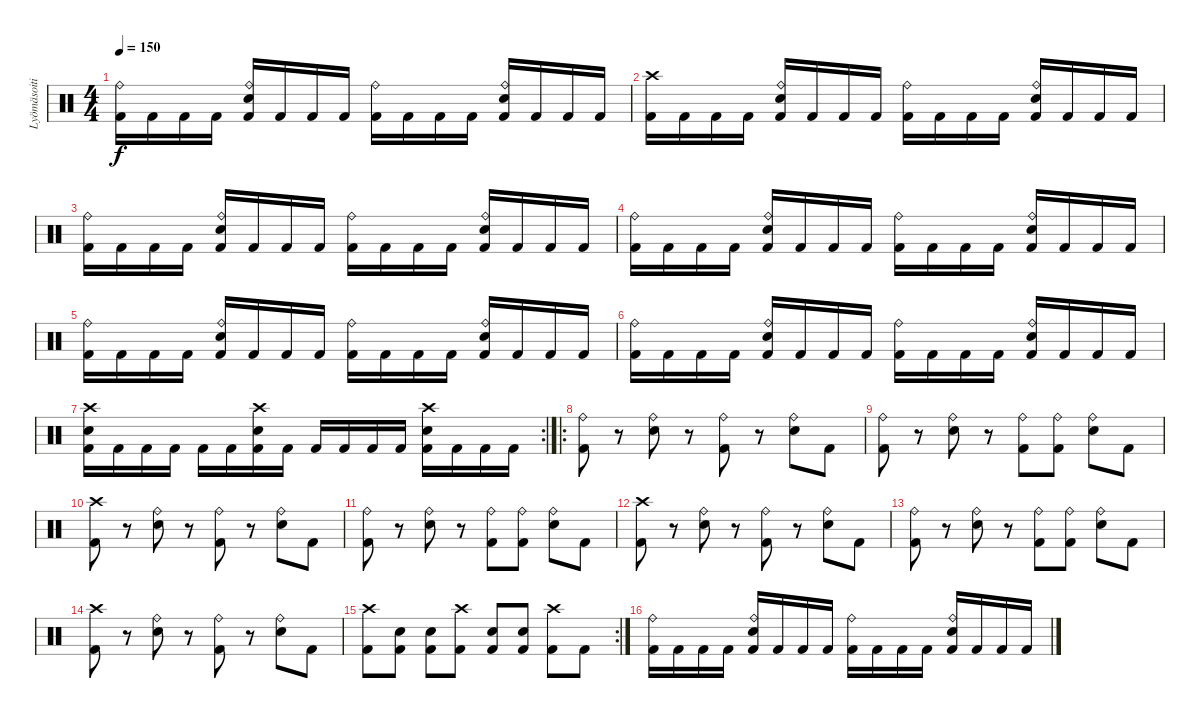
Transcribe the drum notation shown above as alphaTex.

\track ("Lyömäsoitin" "Lyömäsoiti") {instrument percussion}
\staff {score}
\articulation defaults
\ts (4 4)
\tempo 150
\clef neutral
\ks c
("Kick (hit) 2" "Ride (bell)").16{dy f} "Kick (hit) 2".16 "Kick (hit) 2".16 "Kick (hit) 2".16 ("Kick (hit) 2" "Ride (bell)" "Electric Snare (hit)").16 "Kick (hit) 2".16 "Kick (hit) 2".16 "Kick (hit) 2".16 ("Kick (hit) 2" "Ride (bell)").16 "Kick (hit) 2".16 "Kick (hit) 2".16 "Kick (hit) 2".16 ("Kick (hit) 2" "Ride (bell)" "Electric Snare (hit)").16 "Kick (hit) 2".16 "Kick (hit) 2".16 "Kick (hit) 2".16 |
("Kick (hit) 2" "Crash high (hit)").16 "Kick (hit) 2".16 "Kick (hit) 2".16 "Kick (hit) 2".16 ("Kick (hit) 2" "Electric Snare (hit)" "Ride (bell)").16 "Kick (hit) 2".16 "Kick (hit) 2".16 "Kick (hit) 2".16 ("Kick (hit) 2" "Ride (bell)").16 "Kick (hit) 2".16 "Kick (hit) 2".16 "Kick (hit) 2".16 ("Kick (hit) 2" "Ride (bell)" "Electric Snare (hit)").16 "Kick (hit) 2".16 "Kick (hit) 2".16 "Kick (hit) 2".16 |
("Kick (hit) 2" "Ride (bell)").16 "Kick (hit) 2".16 "Kick (hit) 2".16 "Kick (hit) 2".16 ("Kick (hit) 2" "Ride (bell)" "Electric Snare (hit)").16 "Kick (hit) 2".16 "Kick (hit) 2".16 "Kick (hit) 2".16 ("Kick (hit) 2" "Ride (bell)").16 "Kick (hit) 2".16 "Kick (hit) 2".16 "Kick (hit) 2".16 ("Kick (hit) 2" "Ride (bell)" "Electric Snare (hit)").16 "Kick (hit) 2".16 "Kick (hit) 2".16 "Kick (hit) 2".16 |
("Kick (hit) 2" "Ride (bell)").16 "Kick (hit) 2".16 "Kick (hit) 2".16 "Kick (hit) 2".16 ("Kick (hit) 2" "Electric Snare (hit)" "Ride (bell)").16 "Kick (hit) 2".16 "Kick (hit) 2".16 "Kick (hit) 2".16 ("Kick (hit) 2" "Ride (bell)").16 "Kick (hit) 2".16 "Kick (hit) 2".16 "Kick (hit) 2".16 ("Kick (hit) 2" "Ride (bell)" "Electric Snare (hit)").16 "Kick (hit) 2".16 "Kick (hit) 2".16 "Kick (hit) 2".16 |
("Kick (hit) 2" "Ride (bell)").16 "Kick (hit) 2".16 "Kick (hit) 2".16 "Kick (hit) 2".16 ("Kick (hit) 2" "Ride (bell)" "Electric Snare (hit)").16 "Kick (hit) 2".16 "Kick (hit) 2".16 "Kick (hit) 2".16 ("Kick (hit) 2" "Ride (bell)").16 "Kick (hit) 2".16 "Kick (hit) 2".16 "Kick (hit) 2".16 ("Kick (hit) 2" "Ride (bell)" "Electric Snare (hit)").16 "Kick (hit) 2".16 "Kick (hit) 2".16 "Kick (hit) 2".16 |
("Kick (hit) 2" "Ride (bell)").16 "Kick (hit) 2".16 "Kick (hit) 2".16 "Kick (hit) 2".16 ("Kick (hit) 2" "Electric Snare (hit)" "Ride (bell)").16 "Kick (hit) 2".16 "Kick (hit) 2".16 "Kick (hit) 2".16 ("Kick (hit) 2" "Ride (bell)").16 "Kick (hit) 2".16 "Kick (hit) 2".16 "Kick (hit) 2".16 ("Kick (hit) 2" "Ride (bell)" "Electric Snare (hit)").16 "Kick (hit) 2".16 "Kick (hit) 2".16 "Kick (hit) 2".16 |
\rc 2
("Kick (hit) 2" "Crash high (hit)" "Electric Snare (hit)").16 "Kick (hit) 2".16 "Kick (hit) 2".16 "Kick (hit) 2".16 "Kick (hit) 2".16 "Kick (hit) 2".16 ("Kick (hit) 2" "Crash high (hit)" "Electric Snare (hit)").16 "Kick (hit) 2".16 "Kick (hit) 2".16 "Kick (hit) 2".16 "Kick (hit) 2".16 "Kick (hit) 2".16 ("Kick (hit) 2" "Crash high (hit)" "Electric Snare (hit)").16 "Kick (hit) 2".16 "Kick (hit) 2".16 "Kick (hit) 2".16 |
\ro
("Ride (bell)" "Kick (hit) 2").8 r.8 ("Ride (bell)" "Electric Snare (hit)").8 r.8 ("Ride (bell)" "Kick (hit) 2").8 r.8 ("Ride (bell)" "Electric Snare (hit)").8 "Kick (hit) 2".8 |
("Ride (bell)" "Kick (hit) 2").8 r.8 ("Ride (bell)" "Electric Snare (hit)").8 r.8 ("Ride (bell)" "Kick (hit) 2").8 ("Ride (bell)" "Kick (hit) 2").8 ("Ride (bell)" "Electric Snare (hit)").8 "Kick (hit) 2".8 |
("Crash high (hit)" "Kick (hit) 2").8 r.8 ("Ride (bell)" "Electric Snare (hit)").8 r.8 ("Ride (bell)" "Kick (hit) 2").8 r.8 ("Ride (bell)" "Electric Snare (hit)").8 "Kick (hit) 2".8 |
("Ride (bell)" "Kick (hit) 2").8 r.8 ("Ride (bell)" "Electric Snare (hit)").8 r.8 ("Ride (bell)" "Kick (hit) 2").8 ("Ride (bell)" "Kick (hit) 2").8 ("Ride (bell)" "Electric Snare (hit)").8 "Kick (hit) 2".8 |
("Crash high (hit)" "Kick (hit) 2").8 r.8 ("Ride (bell)" "Electric Snare (hit)").8 r.8 ("Ride (bell)" "Kick (hit) 2").8 r.8 ("Ride (bell)" "Electric Snare (hit)").8 "Kick (hit) 2".8 |
("Ride (bell)" "Kick (hit) 2").8 r.8 ("Ride (bell)" "Electric Snare (hit)").8 r.8 ("Ride (bell)" "Kick (hit) 2").8 ("Ride (bell)" "Kick (hit) 2").8 ("Ride (bell)" "Electric Snare (hit)").8 "Kick (hit) 2".8 |
("Crash high (hit)" "Kick (hit) 2").8 r.8 ("Ride (bell)" "Electric Snare (hit)").8 r.8 ("Ride (bell)" "Kick (hit) 2").8 r.8 ("Ride (bell)" "Electric Snare (hit)").8 "Kick (hit) 2".8 |
\rc 2
("Crash high (hit)" "Kick (hit) 2").8 ("Electric Snare (hit)" "Kick (hit) 2").8 ("Electric Snare (hit)" "Kick (hit) 2").8 ("Crash high (hit)" "Kick (hit) 2").8 ("Kick (hit) 2" "Electric Snare (hit)").8 ("Kick (hit) 2" "Electric Snare (hit)").8 ("Crash high (hit)" "Kick (hit) 2").8 "Kick (hit) 2".8 |
("Kick (hit) 2" "Ride (bell)").16 "Kick (hit) 2".16 "Kick (hit) 2".16 "Kick (hit) 2".16 ("Kick (hit) 2" "Electric Snare (hit)" "Ride (bell)").16 "Kick (hit) 2".16 "Kick (hit) 2".16 "Kick (hit) 2".16 ("Kick (hit) 2" "Ride (bell)").16 "Kick (hit) 2".16 "Kick (hit) 2".16 "Kick (hit) 2".16 ("Kick (hit) 2" "Ride (bell)" "Electric Snare (hit)").16 "Kick (hit) 2".16 "Kick (hit) 2".16 "Kick (hit) 2".16
